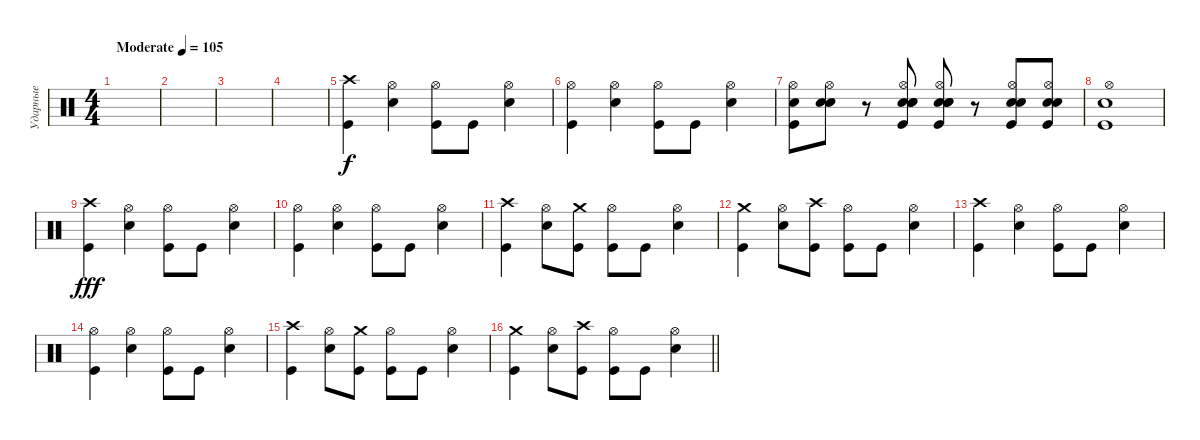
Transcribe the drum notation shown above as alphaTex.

\track ("Ударные" "Ударные") {instrument percussion}
\staff {score}
\articulation defaults
\ts (4 4)
\tempo (105 "Moderate")
\clef neutral
\ks c
|
|
|
|
("Crash high (hit)" "Kick (hit)").4{volume 9} ("Hi-Hat (open)" "Electric Snare (hit)").4 ("Hi-Hat (open)" "Kick (hit)").8 "Kick (hit)".8 ("Hi-Hat (open)" "Electric Snare (hit)").4 |
("Hi-Hat (open)" "Kick (hit)").4 ("Hi-Hat (open)" "Electric Snare (hit)").4 ("Hi-Hat (open)" "Kick (hit)").8 "Kick (hit)".8 ("Hi-Hat (open)" "Electric Snare (hit)").4 |
("Hi-Hat (open)" "Kick (hit)" "Snare (hit) 2").8{dy f} ("Hi-Hat (open)" "Snare (hit) 2" "Snare (hit) 2").8 r.8 ("Snare (hit) 2" "Kick (hit)" "Snare (hit) 2" "Snare (hit) 2" "Hi-Hat (open)").8 ("Kick (hit)" "Snare (hit) 2" "Snare (hit) 2" "Snare (hit) 2" "Hi-Hat (open)").8 r.8 ("Snare (hit) 2" "Kick (hit)" "Snare (hit) 2" "Hi-Hat (open)").8 ("Kick (hit)" "Snare (hit) 2" "Snare (hit) 2" "Hi-Hat (open)").8 |
("Snare (hit) 2" "Kick (hit)" "Hi-Hat (open)").1 |
("Crash high (hit)" "Kick (hit)").4{dy fff volume 16} ("Hi-Hat (open)" "Electric Snare (hit)").4 ("Hi-Hat (open)" "Kick (hit)").8 "Kick (hit)".8 ("Hi-Hat (open)" "Electric Snare (hit)").4 |
("Hi-Hat (open)" "Kick (hit)").4 ("Hi-Hat (open)" "Electric Snare (hit)").4 ("Hi-Hat (open)" "Kick (hit)").8 "Kick (hit)".8 ("Hi-Hat (open)" "Electric Snare (hit)").4 |
("Crash high (hit)" "Kick (hit)").4 ("Hi-Hat (open)" "Electric Snare (hit)").8 ("Crash medium (hit)" "Kick (hit)").8 ("Hi-Hat (open)" "Kick (hit)").8 "Kick (hit)".8 ("Hi-Hat (open)" "Electric Snare (hit)").4 |
("Crash medium (hit)" "Kick (hit)").4 ("Hi-Hat (open)" "Electric Snare (hit)").8 ("Crash high (hit)" "Kick (hit)").8 ("Hi-Hat (open)" "Kick (hit)").8 "Kick (hit)".8 ("Hi-Hat (open)" "Electric Snare (hit)").4 |
("Crash high (hit)" "Kick (hit)").4 ("Hi-Hat (open)" "Electric Snare (hit)").4 ("Hi-Hat (open)" "Kick (hit)").8 "Kick (hit)".8 ("Hi-Hat (open)" "Electric Snare (hit)").4 |
("Hi-Hat (open)" "Kick (hit)").4 ("Hi-Hat (open)" "Electric Snare (hit)").4 ("Hi-Hat (open)" "Kick (hit)").8 "Kick (hit)".8 ("Hi-Hat (open)" "Electric Snare (hit)").4 |
("Crash high (hit)" "Kick (hit)").4 ("Hi-Hat (open)" "Electric Snare (hit)").8 ("Crash medium (hit)" "Kick (hit)").8 ("Hi-Hat (open)" "Kick (hit)").8 "Kick (hit)".8 ("Hi-Hat (open)" "Electric Snare (hit)").4 |
\barLineRight lightlight
("Crash medium (hit)" "Kick (hit)").4 ("Hi-Hat (open)" "Electric Snare (hit)").8 ("Crash high (hit)" "Kick (hit)").8 ("Hi-Hat (open)" "Kick (hit)").8 "Kick (hit)".8 ("Hi-Hat (open)" "Electric Snare (hit)").4
